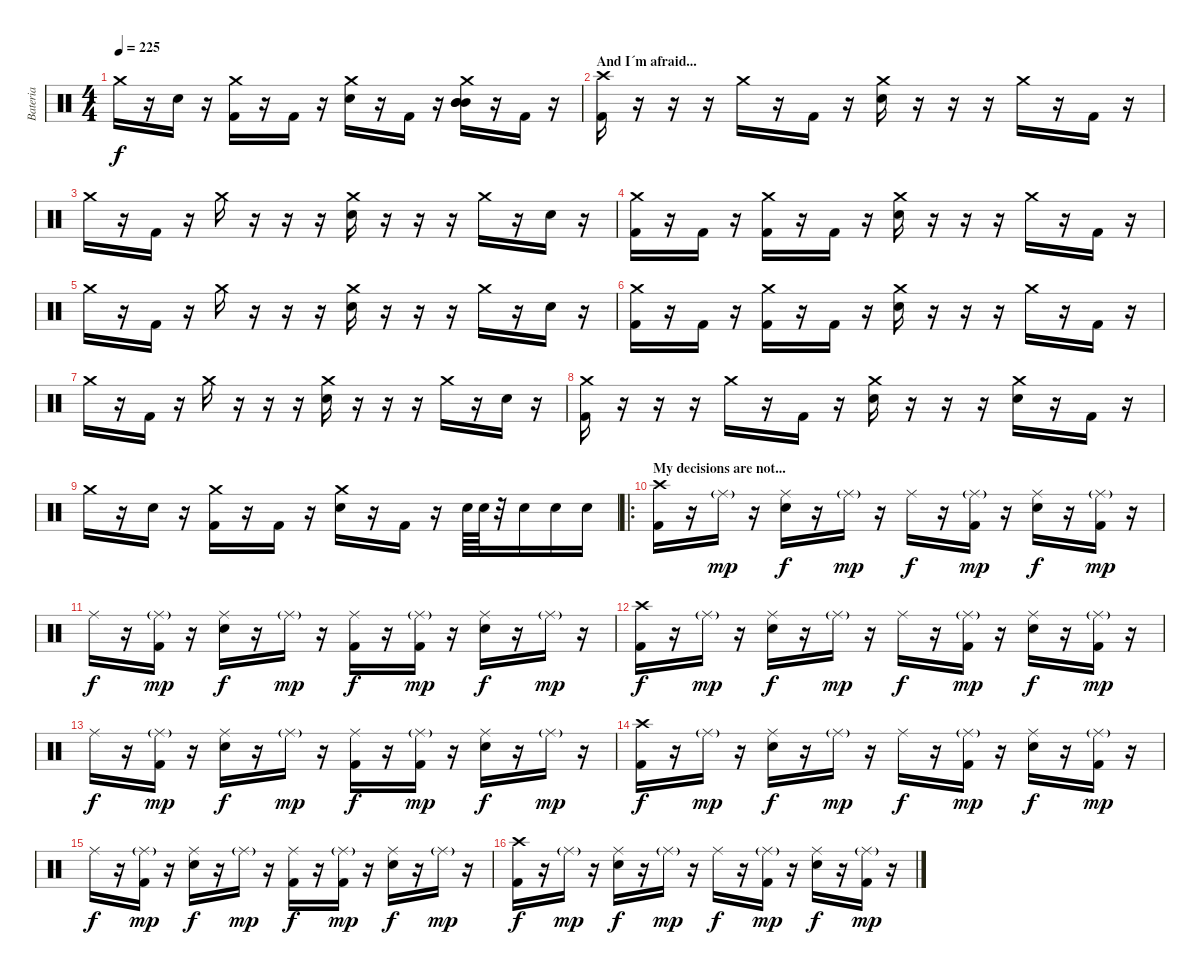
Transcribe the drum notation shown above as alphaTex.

\track ("Bateria" "Bateria") {instrument percussion}
\staff {score}
\articulation defaults
\ts (4 4)
\tempo 225
\clef neutral
\ks c "Crash medium (hit)".16{dy f}
r.16 "Electric Snare (hit)".16 r.16 ("Crash medium (hit)" "Kick (hit) 2").16 r.16 "Kick (hit) 2".16 r.16 ("Crash medium (hit)" "Electric Snare (hit)").16 r.16 "Kick (hit) 2".16 r.16 ("Crash medium (hit)" "Mid Tom (hit)" "Mid Tom (hit)" "Mid Tom (hit)").16 r.16 "Kick (hit) 2".16 r.16 |
\section ("" "And I´m afraid...")
("Crash high (hit)" "Kick (hit) 2").16 r.16 r.16 r.16 "Crash medium (hit)".16 r.16 "Kick (hit) 2".16 r.16 ("Crash medium (hit)" "Electric Snare (hit)").16 r.16 r.16 r.16 "Crash medium (hit)".16 r.16 "Kick (hit) 2".16 r.16 |
"Crash medium (hit)".16 r.16 "Kick (hit) 2".16 r.16 "Crash medium (hit)".16 r.16 r.16 r.16 ("Crash medium (hit)" "Electric Snare (hit)").16 r.16 r.16 r.16 "Crash medium (hit)".16 r.16 "Electric Snare (hit)".16 r.16 |
("Crash medium (hit)" "Kick (hit) 2").16 r.16 "Kick (hit) 2".16 r.16 ("Crash medium (hit)" "Kick (hit) 2").16 r.16 "Kick (hit) 2".16 r.16 ("Crash medium (hit)" "Electric Snare (hit)").16 r.16 r.16 r.16 "Crash medium (hit)".16 r.16 "Kick (hit) 2".16 r.16 |
"Crash medium (hit)".16 r.16 "Kick (hit) 2".16 r.16 "Crash medium (hit)".16 r.16 r.16 r.16 ("Crash medium (hit)" "Electric Snare (hit)").16 r.16 r.16 r.16 "Crash medium (hit)".16 r.16 "Electric Snare (hit)".16 r.16 |
("Crash medium (hit)" "Kick (hit) 2").16 r.16 "Kick (hit) 2".16 r.16 ("Crash medium (hit)" "Kick (hit) 2").16 r.16 "Kick (hit) 2".16 r.16 ("Crash medium (hit)" "Electric Snare (hit)").16 r.16 r.16 r.16 "Crash medium (hit)".16 r.16 "Kick (hit) 2".16 r.16 |
"Crash medium (hit)".16 r.16 "Kick (hit) 2".16 r.16 "Crash medium (hit)".16 r.16 r.16 r.16 ("Crash medium (hit)" "Electric Snare (hit)").16 r.16 r.16 r.16 "Crash medium (hit)".16 r.16 "Electric Snare (hit)".16 r.16 |
("Crash medium (hit)" "Kick (hit) 2").16 r.16 r.16 r.16 "Crash medium (hit)".16 r.16 "Kick (hit) 2".16 r.16 ("Crash medium (hit)" "Electric Snare (hit)").16 r.16 r.16 r.16 ("Crash medium (hit)" "Electric Snare (hit)").16 r.16 "Kick (hit) 2".16 r.16 |
"Crash medium (hit)".16 r.16 "Electric Snare (hit)".16 r.16 ("Crash medium (hit)" "Kick (hit) 2").16 r.16 "Kick (hit) 2".16 r.16 ("Crash medium (hit)" "Electric Snare (hit)").16 r.16 "Kick (hit) 2".16 r.16 "Electric Snare (hit)".64 "Electric Snare (hit)".64 r.32 "Electric Snare (hit)".16 "Electric Snare (hit)".16 "Electric Snare (hit)".16 |
\ro
\section ("" "My decisions are not...")
("Crash high (hit)" "Kick (hit) 2").16 r.16 "Ride (middle)"{g}.16{dy mp} r.16 ("Ride (middle)" "Electric Snare (hit)").16{dy f} r.16 "Ride (middle)"{g}.16{dy mp} r.16 "Ride (middle)".16{dy f} r.16 ("Ride (middle)"{g} "Kick (hit) 2").16{dy mp} r.16 ("Ride (middle)" "Electric Snare (hit)").16{dy f} r.16 ("Ride (middle)"{g} "Kick (hit) 2").16{dy mp} r.16 |
"Ride (middle)".16{dy f} r.16 ("Ride (middle)"{g} "Kick (hit) 2").16{dy mp} r.16 ("Ride (middle)" "Electric Snare (hit)").16{dy f} r.16 "Ride (middle)"{g}.16{dy mp} r.16 ("Ride (middle)" "Kick (hit) 2").16{dy f} r.16 ("Ride (middle)"{g} "Kick (hit) 2").16{dy mp} r.16 ("Ride (middle)" "Electric Snare (hit)").16{dy f} r.16 "Ride (middle)"{g}.16{dy mp} r.16 |
("Crash high (hit)" "Kick (hit) 2").16{dy f} r.16 "Ride (middle)"{g}.16{dy mp} r.16 ("Ride (middle)" "Electric Snare (hit)").16{dy f} r.16 "Ride (middle)"{g}.16{dy mp} r.16 "Ride (middle)".16{dy f} r.16 ("Ride (middle)"{g} "Kick (hit) 2").16{dy mp} r.16 ("Ride (middle)" "Electric Snare (hit)").16{dy f} r.16 ("Ride (middle)"{g} "Kick (hit) 2").16{dy mp} r.16 |
"Ride (middle)".16{dy f} r.16 ("Ride (middle)"{g} "Kick (hit) 2").16{dy mp} r.16 ("Ride (middle)" "Electric Snare (hit)").16{dy f} r.16 "Ride (middle)"{g}.16{dy mp} r.16 ("Ride (middle)" "Kick (hit) 2").16{dy f} r.16 ("Ride (middle)"{g} "Kick (hit) 2").16{dy mp} r.16 ("Ride (middle)" "Electric Snare (hit)").16{dy f} r.16 "Ride (middle)"{g}.16{dy mp} r.16 |
("Crash high (hit)" "Kick (hit) 2").16{dy f} r.16 "Ride (middle)"{g}.16{dy mp} r.16 ("Ride (middle)" "Electric Snare (hit)").16{dy f} r.16 "Ride (middle)"{g}.16{dy mp} r.16 "Ride (middle)".16{dy f} r.16 ("Ride (middle)"{g} "Kick (hit) 2").16{dy mp} r.16 ("Ride (middle)" "Electric Snare (hit)").16{dy f} r.16 ("Ride (middle)"{g} "Kick (hit) 2").16{dy mp} r.16 |
"Ride (middle)".16{dy f} r.16 ("Ride (middle)"{g} "Kick (hit) 2").16{dy mp} r.16 ("Ride (middle)" "Electric Snare (hit)").16{dy f} r.16 "Ride (middle)"{g}.16{dy mp} r.16 ("Ride (middle)" "Kick (hit) 2").16{dy f} r.16 ("Ride (middle)"{g} "Kick (hit) 2").16{dy mp} r.16 ("Ride (middle)" "Electric Snare (hit)").16{dy f} r.16 "Ride (middle)"{g}.16{dy mp} r.16 |
("Crash high (hit)" "Kick (hit) 2").16{dy f} r.16 "Ride (middle)"{g}.16{dy mp} r.16 ("Ride (middle)" "Electric Snare (hit)").16{dy f} r.16 "Ride (middle)"{g}.16{dy mp} r.16 "Ride (middle)".16{dy f} r.16 ("Ride (middle)"{g} "Kick (hit) 2").16{dy mp} r.16 ("Ride (middle)" "Electric Snare (hit)").16{dy f} r.16 ("Ride (middle)"{g} "Kick (hit) 2").16{dy mp} r.16
